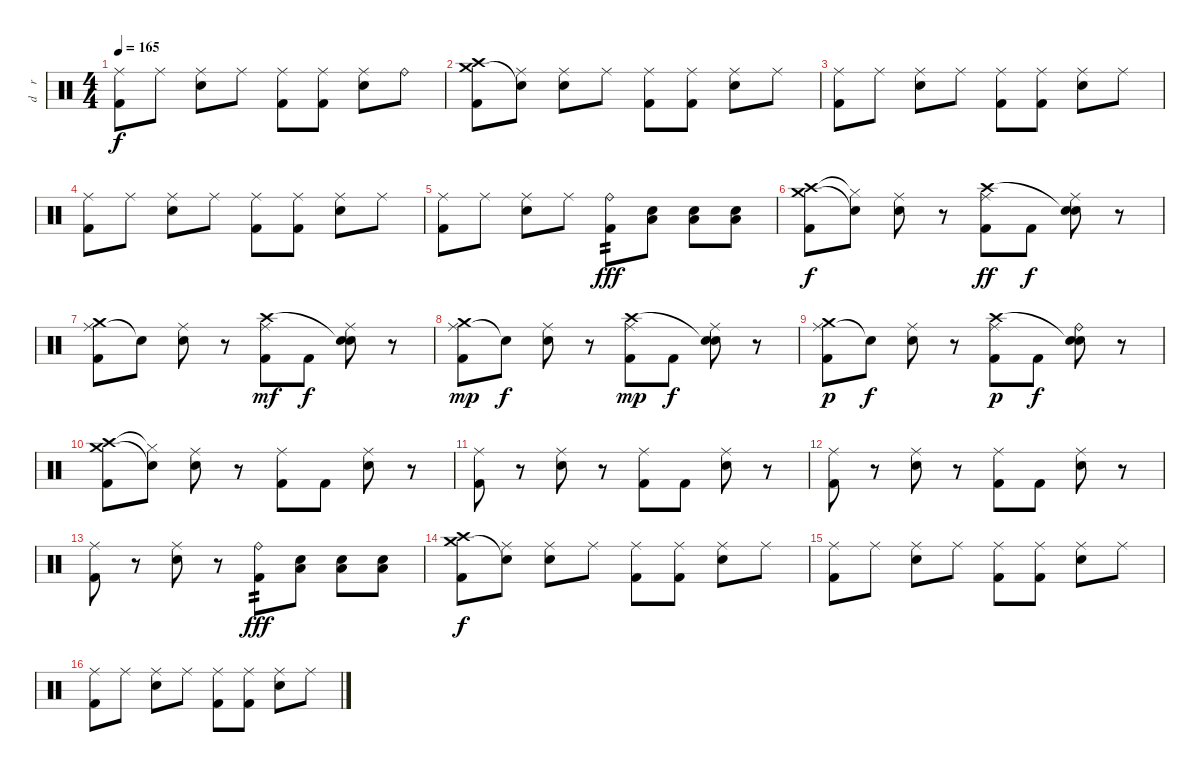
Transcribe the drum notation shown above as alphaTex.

\track ("d    r    u    m    s" "d    r    ") {instrument percussion}
\staff {score}
\articulation defaults
\ts (4 4)
\tempo 165
\clef neutral
\ks c
("Ride (middle)" "Kick (hit) 2").8{dy f} "Ride (middle)".8 ("Ride (middle)" "Electric Snare (hit)").8 "Ride (middle)".8 ("Ride (middle)" "Kick (hit) 2").8 ("Ride (middle)" "Kick (hit) 2").8 ("Ride (middle)" "Electric Snare (hit)").8 "Ride (bell)".8 |
("Crash high (hit)" "Crash medium (hit)" "Kick (hit) 2").8 ("Ride (middle)" "Snare (hit)"{t}).8 ("Ride (middle)" "Electric Snare (hit)").8 "Ride (middle)".8 ("Ride (middle)" "Kick (hit) 2").8 ("Ride (middle)" "Kick (hit) 2").8 ("Ride (middle)" "Electric Snare (hit)").8 "Ride (middle)".8 |
("Ride (middle)" "Kick (hit) 2").8 "Ride (middle)".8 ("Ride (middle)" "Electric Snare (hit)").8 "Ride (middle)".8 ("Ride (middle)" "Kick (hit) 2").8 ("Ride (middle)" "Kick (hit) 2").8 ("Ride (middle)" "Electric Snare (hit)").8 "Ride (middle)".8 |
("Ride (middle)" "Kick (hit) 2").8 "Ride (middle)".8 ("Ride (middle)" "Electric Snare (hit)").8 "Ride (middle)".8 ("Ride (middle)" "Kick (hit) 2").8 ("Ride (middle)" "Kick (hit) 2").8 ("Ride (middle)" "Electric Snare (hit)").8 "Ride (middle)".8 |
("Ride (middle)" "Kick (hit) 2").8 "Ride (middle)".8 ("Ride (middle)" "Electric Snare (hit)").8 "Ride (middle)".8 ("Ride (bell)" "Kick (hit) 2").8{tp 2 dy fff} ("Low Floor Tom (hit)" "Electric Snare (hit)").8 ("Low Floor Tom (hit)" "Electric Snare (hit)").8 ("Low Floor Tom (hit)" "Electric Snare (hit)").8 |
("Crash high (hit)" "Crash medium (hit)" "Kick (hit) 2").8{dy f} ("Hi-Hat (closed)"{t} "Snare (hit)"{t}).8 ("Ride (middle)" "Electric Snare (hit)").8 r.8 ("Ride (middle)" "Crash high (hit)" "Kick (hit) 2").8{dy ff} "Kick (hit) 2".8{dy f} ("Ride (middle)" "Snare (hit)"{t} "Electric Snare (hit)").8 r.8 |
("Ride (middle)" "Crash medium (hit)" "Kick (hit) 2").8 "Snare (hit)"{t}.8 ("Ride (middle)" "Electric Snare (hit)").8 r.8 ("Ride (middle)" "Crash high (hit)" "Kick (hit) 2").8{dy mf} "Kick (hit) 2".8{dy f} ("Ride (middle)" "Snare (hit)"{t} "Electric Snare (hit)").8 r.8 |
("Ride (middle)" "Crash medium (hit)" "Kick (hit) 2").8{dy mp} "Snare (hit)"{t}.8{dy f} ("Ride (middle)" "Electric Snare (hit)").8 r.8 ("Ride (middle)" "Crash high (hit)" "Kick (hit) 2").8{dy mp} "Kick (hit) 2".8{dy f} ("Ride (middle)" "Snare (hit)"{t} "Electric Snare (hit)").8 r.8 |
("Ride (middle)" "Crash medium (hit)" "Kick (hit) 2").8{dy p} "Snare (hit)"{t}.8{dy f} ("Ride (middle)" "Electric Snare (hit)").8 r.8 ("Ride (middle)" "Crash high (hit)" "Kick (hit) 2").8{dy p} "Kick (hit) 2".8{dy f} ("Ride (bell)" "Snare (hit)"{t} "Electric Snare (hit)").8 r.8 |
("Crash high (hit)" "Crash medium (hit)" "Kick (hit) 2").8 ("Hi-Hat (closed)"{t} "Snare (hit)"{t}).8 ("Ride (middle)" "Electric Snare (hit)").8 r.8 ("Ride (middle)" "Kick (hit) 2").8 "Kick (hit) 2".8 ("Ride (middle)" "Electric Snare (hit)").8 r.8 |
("Ride (middle)" "Kick (hit) 2").8 r.8 ("Ride (middle)" "Electric Snare (hit)").8 r.8 ("Ride (middle)" "Kick (hit) 2").8 "Kick (hit) 2".8 ("Ride (middle)" "Electric Snare (hit)").8 r.8 |
("Ride (middle)" "Kick (hit) 2").8 r.8 ("Ride (middle)" "Electric Snare (hit)").8 r.8 ("Ride (middle)" "Kick (hit) 2").8 "Kick (hit) 2".8 ("Ride (middle)" "Electric Snare (hit)").8 r.8 |
("Ride (middle)" "Kick (hit) 2").8 r.8 ("Ride (middle)" "Electric Snare (hit)").8 r.8 ("Ride (bell)" "Kick (hit) 2").8{tp 2 dy fff} ("Low Floor Tom (hit)" "Electric Snare (hit)").8 ("Low Floor Tom (hit)" "Electric Snare (hit)").8 ("Low Floor Tom (hit)" "Electric Snare (hit)").8 |
("Crash high (hit)" "Crash medium (hit)" "Kick (hit) 2").8{dy f} ("Ride (middle)" "Snare (hit)"{t}).8 ("Ride (middle)" "Electric Snare (hit)").8 "Ride (middle)".8 ("Ride (middle)" "Kick (hit) 2").8 ("Ride (middle)" "Kick (hit) 2").8 ("Ride (middle)" "Electric Snare (hit)").8 "Ride (middle)".8 |
("Ride (middle)" "Kick (hit) 2").8 "Ride (middle)".8 ("Ride (middle)" "Electric Snare (hit)").8 "Ride (middle)".8 ("Ride (middle)" "Kick (hit) 2").8 ("Ride (middle)" "Kick (hit) 2").8 ("Ride (middle)" "Electric Snare (hit)").8 "Ride (middle)".8 |
("Ride (middle)" "Kick (hit) 2").8 "Ride (middle)".8 ("Ride (middle)" "Electric Snare (hit)").8 "Ride (middle)".8 ("Ride (middle)" "Kick (hit) 2").8 ("Ride (middle)" "Kick (hit) 2").8 ("Ride (middle)" "Electric Snare (hit)").8 "Ride (middle)".8
